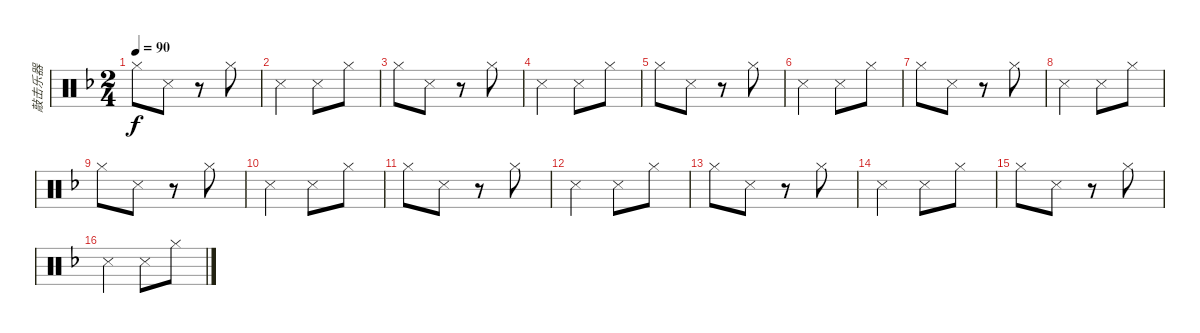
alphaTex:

\track ("敲击乐器" "敲击乐器") {instrument percussion bank 8}
\staff {score}
\articulation defaults
\ts (2 4)
\tempo 90
\clef neutral
\ks f "Hi-Hat (closed)".8{dy f} "Snare (side stick) 3".8
r.8 "Hi-Hat (closed)".8 |
"Snare (side stick) 3".4 "Snare (side stick) 3".8 "Hi-Hat (closed)".8 |
"Hi-Hat (closed)".8 "Snare (side stick) 3".8 r.8 "Hi-Hat (closed)".8 |
"Snare (side stick) 3".4 "Snare (side stick) 3".8 "Hi-Hat (closed)".8 |
"Hi-Hat (closed)".8 "Snare (side stick) 3".8 r.8 "Hi-Hat (closed)".8 |
"Snare (side stick) 3".4 "Snare (side stick) 3".8 "Hi-Hat (closed)".8 |
"Hi-Hat (closed)".8 "Snare (side stick) 3".8 r.8 "Hi-Hat (closed)".8 |
"Snare (side stick) 3".4 "Snare (side stick) 3".8 "Hi-Hat (closed)".8 |
"Hi-Hat (closed)".8 "Snare (side stick) 3".8 r.8 "Hi-Hat (closed)".8 |
"Snare (side stick) 3".4 "Snare (side stick) 3".8 "Hi-Hat (closed)".8 |
"Hi-Hat (closed)".8 "Snare (side stick) 3".8 r.8 "Hi-Hat (closed)".8 |
"Snare (side stick) 3".4 "Snare (side stick) 3".8 "Hi-Hat (closed)".8 |
"Hi-Hat (closed)".8 "Snare (side stick) 3".8 r.8 "Hi-Hat (closed)".8 |
"Snare (side stick) 3".4 "Snare (side stick) 3".8 "Hi-Hat (closed)".8 |
"Hi-Hat (closed)".8 "Snare (side stick) 3".8 r.8 "Hi-Hat (closed)".8 |
"Snare (side stick) 3".4 "Snare (side stick) 3".8 "Hi-Hat (closed)".8
